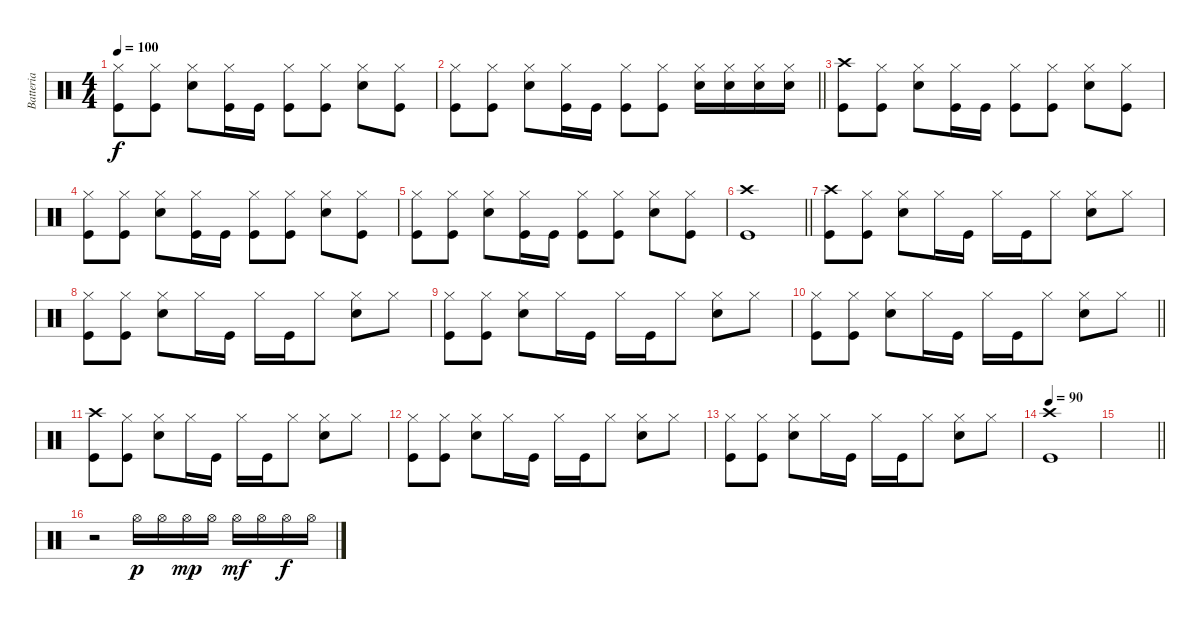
\track ("Batteria" "Batteria") {instrument percussion}
\staff {score}
\articulation defaults
\ts (4 4)
\tempo 100
\clef neutral
\ks c
("Hi-Hat (closed)" "Kick (hit)").8{dy f} ("Hi-Hat (closed)" "Kick (hit)").8 ("Snare (hit) 2" "Hi-Hat (closed)").8 ("Hi-Hat (closed)" "Kick (hit)").16 "Kick (hit)".16 ("Kick (hit)" "Hi-Hat (closed)").8 ("Kick (hit)" "Hi-Hat (closed)").8 ("Snare (hit) 2" "Hi-Hat (closed)").8 ("Kick (hit)" "Hi-Hat (closed)").8 |
\barLineRight lightlight
("Hi-Hat (closed)" "Kick (hit)").8 ("Hi-Hat (closed)" "Kick (hit)").8 ("Snare (hit) 2" "Hi-Hat (closed)").8 ("Hi-Hat (closed)" "Kick (hit)").16 "Kick (hit)".16 ("Kick (hit)" "Hi-Hat (closed)").8 ("Kick (hit)" "Hi-Hat (closed)").8 ("Snare (hit) 2" "Hi-Hat (closed)").16 ("Snare (hit) 2" "Hi-Hat (closed)").16 ("Snare (hit) 2" "Hi-Hat (closed)").16 ("Snare (hit) 2" "Hi-Hat (closed)").16 |
("Crash high (hit)" "Kick (hit)").8 ("Hi-Hat (closed)" "Kick (hit)").8 ("Snare (hit) 2" "Hi-Hat (closed)").8 ("Hi-Hat (closed)" "Kick (hit)").16 "Kick (hit)".16 ("Kick (hit)" "Hi-Hat (closed)").8 ("Kick (hit)" "Hi-Hat (closed)").8 ("Snare (hit) 2" "Hi-Hat (closed)").8 ("Kick (hit)" "Hi-Hat (closed)").8 |
("Hi-Hat (closed)" "Kick (hit)").8 ("Hi-Hat (closed)" "Kick (hit)").8 ("Snare (hit) 2" "Hi-Hat (closed)").8 ("Hi-Hat (closed)" "Kick (hit)").16 "Kick (hit)".16 ("Kick (hit)" "Hi-Hat (closed)").8 ("Kick (hit)" "Hi-Hat (closed)").8 ("Snare (hit) 2" "Hi-Hat (closed)").8 ("Kick (hit)" "Hi-Hat (closed)").8 |
("Hi-Hat (closed)" "Kick (hit)").8 ("Hi-Hat (closed)" "Kick (hit)").8 ("Snare (hit) 2" "Hi-Hat (closed)").8 ("Hi-Hat (closed)" "Kick (hit)").16 "Kick (hit)".16 ("Kick (hit)" "Hi-Hat (closed)").8 ("Kick (hit)" "Hi-Hat (closed)").8 ("Snare (hit) 2" "Hi-Hat (closed)").8 ("Kick (hit)" "Hi-Hat (closed)").8 |
\barLineRight lightlight
("Crash high (hit)" "Kick (hit)").1 |
("Kick (hit)" "Crash high (hit)").8 ("Kick (hit)" "Hi-Hat (closed)").8 ("Snare (hit) 2" "Hi-Hat (closed)").8 "Hi-Hat (closed)".16 "Kick (hit)".16 "Hi-Hat (closed)".16 "Kick (hit)".16 "Hi-Hat (closed)".8 ("Snare (hit) 2" "Hi-Hat (closed)").8 "Hi-Hat (closed)".8 |
("Kick (hit)" "Hi-Hat (closed)").8 ("Kick (hit)" "Hi-Hat (closed)").8 ("Snare (hit) 2" "Hi-Hat (closed)").8 "Hi-Hat (closed)".16 "Kick (hit)".16 "Hi-Hat (closed)".16 "Kick (hit)".16 "Hi-Hat (closed)".8 ("Snare (hit) 2" "Hi-Hat (closed)").8 "Hi-Hat (closed)".8 |
("Kick (hit)" "Hi-Hat (closed)").8 ("Kick (hit)" "Hi-Hat (closed)").8 ("Snare (hit) 2" "Hi-Hat (closed)").8 "Hi-Hat (closed)".16 "Kick (hit)".16 "Hi-Hat (closed)".16 "Kick (hit)".16 "Hi-Hat (closed)".8 ("Snare (hit) 2" "Hi-Hat (closed)").8 "Hi-Hat (closed)".8 |
\barLineRight lightlight
("Kick (hit)" "Hi-Hat (closed)").8 ("Kick (hit)" "Hi-Hat (closed)").8 ("Snare (hit) 2" "Hi-Hat (closed)").8 "Hi-Hat (closed)".16 "Kick (hit)".16 "Hi-Hat (closed)".16 "Kick (hit)".16 "Hi-Hat (closed)".8 ("Snare (hit) 2" "Hi-Hat (closed)").8 "Hi-Hat (closed)".8 |
("Kick (hit)" "Crash high (hit)").8 ("Kick (hit)" "Hi-Hat (closed)").8 ("Snare (hit) 2" "Hi-Hat (closed)").8 "Hi-Hat (closed)".16 "Kick (hit)".16 "Hi-Hat (closed)".16 "Kick (hit)".16 "Hi-Hat (closed)".8 ("Snare (hit) 2" "Hi-Hat (closed)").8 "Hi-Hat (closed)".8 |
("Kick (hit)" "Hi-Hat (closed)").8 ("Kick (hit)" "Hi-Hat (closed)").8 ("Snare (hit) 2" "Hi-Hat (closed)").8 "Hi-Hat (closed)".16 "Kick (hit)".16 "Hi-Hat (closed)".16 "Kick (hit)".16 "Hi-Hat (closed)".8 ("Snare (hit) 2" "Hi-Hat (closed)").8 "Hi-Hat (closed)".8 |
("Kick (hit)" "Hi-Hat (closed)").8 ("Kick (hit)" "Hi-Hat (closed)").8 ("Snare (hit) 2" "Hi-Hat (closed)").8 "Hi-Hat (closed)".16 "Kick (hit)".16 "Hi-Hat (closed)".16 "Kick (hit)".16 "Hi-Hat (closed)".8 ("Snare (hit) 2" "Hi-Hat (closed)").8 "Hi-Hat (closed)".8 |
\tempo 90
("Crash high (hit)" "Kick (hit)").1 |
\barLineRight lightlight
|
r.2 "Hi-Hat (open)".16{dy p} "Hi-Hat (open)".16 "Hi-Hat (open)".16{dy mp} "Hi-Hat (open)".16 "Hi-Hat (open)".16{dy mf} "Hi-Hat (open)".16 "Hi-Hat (open)".16{dy f} "Hi-Hat (open)".16
